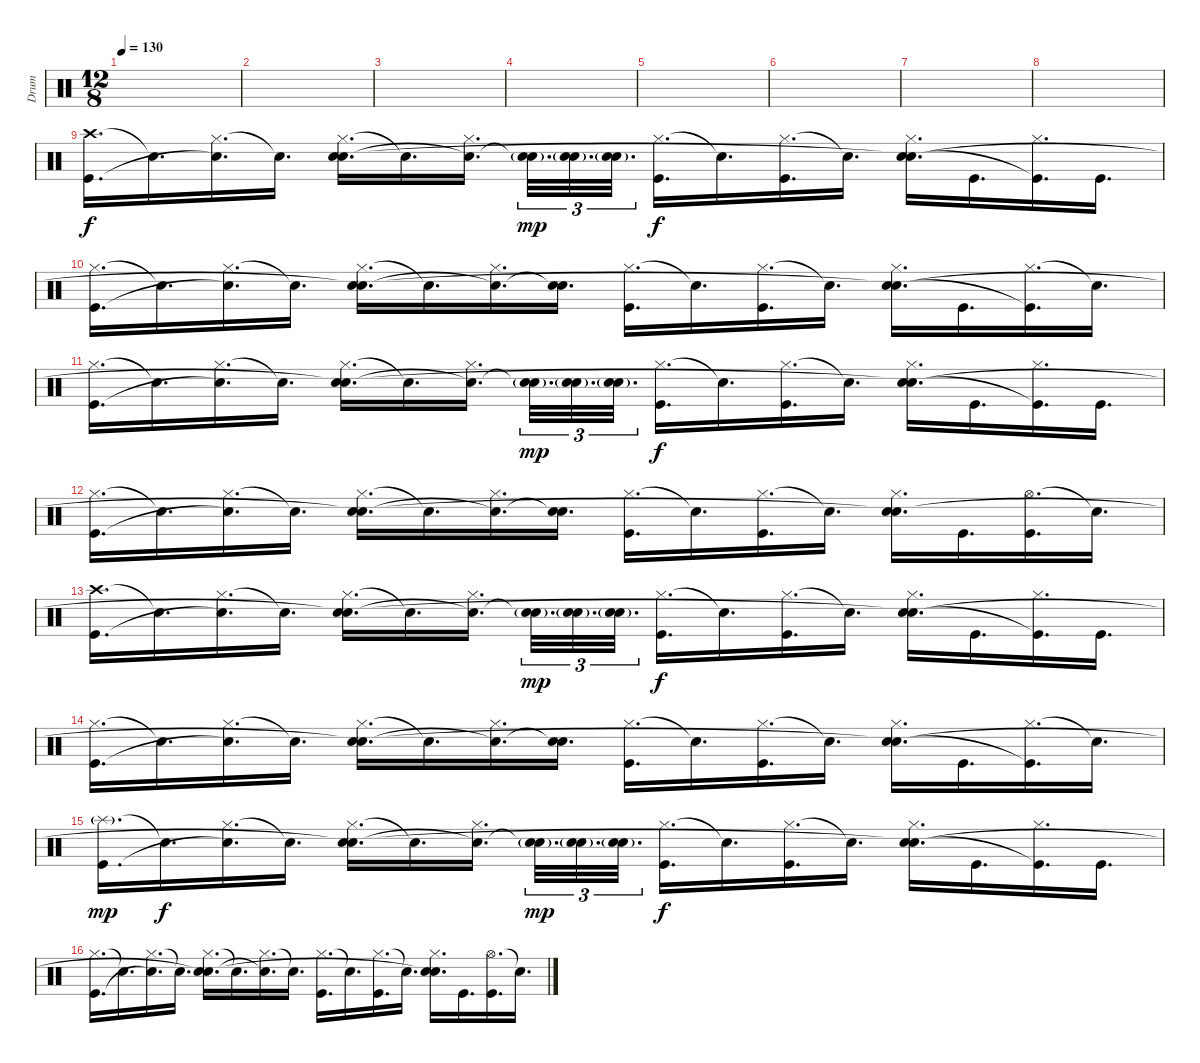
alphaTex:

\track ("Drum" "Drum") {instrument percussion}
\staff {score}
\articulation defaults
\ts (12 8)
\tempo 130
\clef neutral
\ks c
|
|
|
|
|
|
|
|
("Crash high (hit)" "Kick (hit)").16{d} "Snare (hit)"{t}.16{d} ("Hi-Hat (closed)" "Snare (hit)"{t}).16{d} "Snare (hit)"{t}.16{d} ("Hi-Hat (closed)" "Electric Snare (hit)" "Snare (hit)").16{d} "Snare (hit)"{t}.16{d} ("Hi-Hat (closed)" "Snare (hit)"{t}).16{d beam splitsecondary} ("Electric Snare (hit)"{g} "Snare (hit)"{t}).32{d tu (3 2) dy mp} ("Electric Snare (hit)"{g} "Snare (hit)"{t}).32{d tu (3 2)} ("Electric Snare (hit)"{g} "Snare (hit)"{t}).32{d tu (3 2)} ("Hi-Hat (closed)" "Kick (hit)").16{d dy f} "Snare (hit)"{t}.16{d} ("Hi-Hat (closed)" "Kick (hit)").16{d} "Snare (hit)"{t}.16{d} ("Hi-Hat (closed)" "Electric Snare (hit)" "Snare (hit)"{t}).16{d} "Kick (hit)".16{d} ("Hi-Hat (closed)" "Kick (hit)"{t}).16{d} "Kick (hit)".16{d} |
("Hi-Hat (closed)" "Kick (hit)").16{d} "Snare (hit)"{t}.16{d} ("Hi-Hat (closed)" "Snare (hit)"{t}).16{d} "Snare (hit)"{t}.16{d} ("Hi-Hat (closed)" "Electric Snare (hit)" "Snare (hit)"{t}).16{d} "Snare (hit)"{t}.16{d} ("Hi-Hat (closed)" "Snare (hit)"{t}).16{d} ("Electric Snare (hit)" "Snare (hit)"{t}).16{d} ("Hi-Hat (closed)" "Kick (hit)").16{d} "Snare (hit)"{t}.16{d} ("Hi-Hat (closed)" "Kick (hit)").16{d} "Snare (hit)"{t}.16{d} ("Hi-Hat (closed)" "Electric Snare (hit)" "Snare (hit)"{t}).16{d} "Kick (hit)".16{d} ("Hi-Hat (closed)" "Kick (hit)"{t}).16{d} "Snare (hit)"{t}.16{d} |
("Hi-Hat (closed)" "Kick (hit)").16{d} "Snare (hit)"{t}.16{d} ("Hi-Hat (closed)" "Snare (hit)"{t}).16{d} "Snare (hit)"{t}.16{d} ("Hi-Hat (closed)" "Electric Snare (hit)" "Snare (hit)"{t}).16{d} "Snare (hit)"{t}.16{d} ("Hi-Hat (closed)" "Snare (hit)"{t}).16{d beam splitsecondary} ("Electric Snare (hit)"{g} "Snare (hit)"{t}).32{d tu (3 2) dy mp} ("Electric Snare (hit)"{g} "Snare (hit)"{t}).32{d tu (3 2)} ("Electric Snare (hit)"{g} "Snare (hit)"{t}).32{d tu (3 2)} ("Hi-Hat (closed)" "Kick (hit)").16{d dy f} "Snare (hit)"{t}.16{d} ("Hi-Hat (closed)" "Kick (hit)").16{d} "Snare (hit)"{t}.16{d} ("Hi-Hat (closed)" "Electric Snare (hit)" "Snare (hit)"{t}).16{d} "Kick (hit)".16{d} ("Hi-Hat (closed)" "Kick (hit)"{t}).16{d} "Kick (hit)".16{d} |
("Hi-Hat (closed)" "Kick (hit)").16{d} "Snare (hit)"{t}.16{d} ("Hi-Hat (closed)" "Snare (hit)"{t}).16{d} "Snare (hit)"{t}.16{d} ("Hi-Hat (closed)" "Electric Snare (hit)" "Snare (hit)"{t}).16{d} "Snare (hit)"{t}.16{d} ("Hi-Hat (closed)" "Snare (hit)"{t}).16{d} ("Electric Snare (hit)" "Snare (hit)"{t}).16{d} ("Hi-Hat (closed)" "Kick (hit)").16{d} "Snare (hit)"{t}.16{d} ("Hi-Hat (closed)" "Kick (hit)").16{d} "Snare (hit)"{t}.16{d} ("Hi-Hat (closed)" "Electric Snare (hit)" "Snare (hit)"{t}).16{d} "Kick (hit)".16{d} ("Hi-Hat (open)" "Kick (hit)").16{d} "Snare (hit)"{t}.16{d} |
("Crash high (hit)" "Kick (hit)").16{d} "Snare (hit)"{t}.16{d} ("Hi-Hat (closed)" "Snare (hit)"{t}).16{d} "Snare (hit)"{t}.16{d} ("Hi-Hat (closed)" "Electric Snare (hit)" "Snare (hit)"{t}).16{d} "Snare (hit)"{t}.16{d} ("Hi-Hat (closed)" "Snare (hit)"{t}).16{d beam splitsecondary} ("Electric Snare (hit)"{g} "Snare (hit)"{t}).32{d tu (3 2) dy mp} ("Electric Snare (hit)"{g} "Snare (hit)"{t}).32{d tu (3 2)} ("Electric Snare (hit)"{g} "Snare (hit)"{t}).32{d tu (3 2)} ("Hi-Hat (closed)" "Kick (hit)").16{d dy f} "Snare (hit)"{t}.16{d} ("Hi-Hat (closed)" "Kick (hit)").16{d} "Snare (hit)"{t}.16{d} ("Hi-Hat (closed)" "Electric Snare (hit)" "Snare (hit)"{t}).16{d} "Kick (hit)".16{d} ("Hi-Hat (closed)" "Kick (hit)"{t}).16{d} "Kick (hit)".16{d} |
("Hi-Hat (closed)" "Kick (hit)").16{d} "Snare (hit)"{t}.16{d} ("Hi-Hat (closed)" "Snare (hit)"{t}).16{d} "Snare (hit)"{t}.16{d} ("Hi-Hat (closed)" "Electric Snare (hit)" "Snare (hit)"{t}).16{d} "Snare (hit)"{t}.16{d} ("Hi-Hat (closed)" "Snare (hit)"{t}).16{d} ("Electric Snare (hit)" "Snare (hit)"{t}).16{d} ("Hi-Hat (closed)" "Kick (hit)").16{d} "Snare (hit)"{t}.16{d} ("Hi-Hat (closed)" "Kick (hit)").16{d} "Snare (hit)"{t}.16{d} ("Hi-Hat (closed)" "Electric Snare (hit)" "Snare (hit)"{t}).16{d} "Kick (hit)".16{d} ("Hi-Hat (closed)" "Kick (hit)"{t}).16{d} "Snare (hit)"{t}.16{d} |
("Splash (hit)"{g} "Kick (hit)").16{d dy mp} "Snare (hit)"{t}.16{d dy f} ("Hi-Hat (closed)" "Snare (hit)"{t}).16{d} "Snare (hit)"{t}.16{d} ("Hi-Hat (closed)" "Electric Snare (hit)" "Snare (hit)"{t}).16{d} "Snare (hit)"{t}.16{d} ("Hi-Hat (closed)" "Snare (hit)"{t}).16{d beam splitsecondary} ("Electric Snare (hit)"{g} "Snare (hit)"{t}).32{d tu (3 2) dy mp} ("Electric Snare (hit)"{g} "Snare (hit)"{t}).32{d tu (3 2)} ("Electric Snare (hit)"{g} "Snare (hit)"{t}).32{d tu (3 2)} ("Hi-Hat (closed)" "Kick (hit)").16{d dy f} "Snare (hit)"{t}.16{d} ("Hi-Hat (closed)" "Kick (hit)").16{d} "Snare (hit)"{t}.16{d} ("Hi-Hat (closed)" "Electric Snare (hit)" "Snare (hit)"{t}).16{d} "Kick (hit)".16{d} ("Hi-Hat (closed)" "Kick (hit)"{t}).16{d} "Kick (hit)".16{d} |
("Hi-Hat (closed)" "Kick (hit)").16{d} "Snare (hit)"{t}.16{d} ("Hi-Hat (closed)" "Snare (hit)"{t}).16{d} "Snare (hit)"{t}.16{d} ("Hi-Hat (closed)" "Electric Snare (hit)" "Snare (hit)"{t}).16{d} "Snare (hit)"{t}.16{d} ("Hi-Hat (closed)" "Snare (hit)"{t}).16{d} "Snare (hit)"{t}.16{d} ("Hi-Hat (closed)" "Kick (hit)").16{d} "Snare (hit)"{t}.16{d} ("Hi-Hat (closed)" "Kick (hit)").16{d} "Snare (hit)"{t}.16{d} ("Hi-Hat (closed)" "Electric Snare (hit)" "Snare (hit)"{t}).16{d} "Kick (hit)".16{d} ("Hi-Hat (open)" "Kick (hit)").16{d} "Snare (hit)"{t}.16{d}
